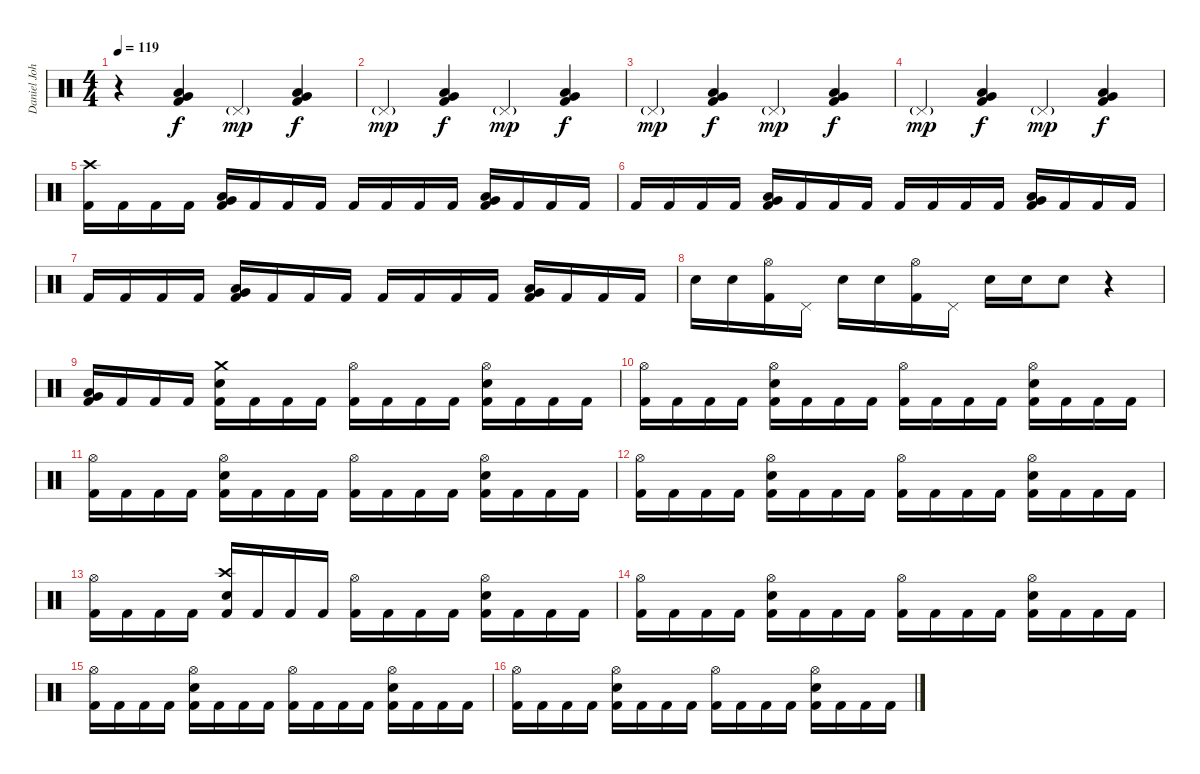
\track ("Daniel John Erlandson (Drums)" "Daniel Joh") {instrument percussion}
\staff {score}
\articulation defaults
\ts (4 4)
\tempo 119
\clef neutral
\ks c
r.4{dy f} ("Kick (hit) 2" "Very Low Tom (hit)" "Low Floor Tom (hit)").4 "Pedal Hi-Hat (hit)"{g}.4{dy mp} ("Very Low Tom (hit)" "Low Floor Tom (hit)" "Kick (hit) 2").4{dy f} |
"Pedal Hi-Hat (hit)"{g}.4{dy mp} ("Kick (hit) 2" "Very Low Tom (hit)" "Low Floor Tom (hit)").4{dy f} "Pedal Hi-Hat (hit)"{g}.4{dy mp} ("Very Low Tom (hit)" "Low Floor Tom (hit)" "Kick (hit) 2").4{dy f} |
"Pedal Hi-Hat (hit)"{g}.4{dy mp} ("Kick (hit) 2" "Very Low Tom (hit)" "Low Floor Tom (hit)").4{dy f} "Pedal Hi-Hat (hit)"{g}.4{dy mp} ("Very Low Tom (hit)" "Low Floor Tom (hit)" "Kick (hit) 2").4{dy f} |
"Pedal Hi-Hat (hit)"{g}.4{dy mp} ("Kick (hit) 2" "Very Low Tom (hit)" "Low Floor Tom (hit)").4{dy f} "Pedal Hi-Hat (hit)"{g}.4{dy mp} ("Very Low Tom (hit)" "Low Floor Tom (hit)" "Kick (hit) 2").4{dy f} |
("Crash high (hit)" "Kick (hit) 2").16 "Kick (hit) 2".16 "Kick (hit) 2".16 "Kick (hit) 2".16 ("Very Low Tom (hit)" "Low Floor Tom (hit)" "Kick (hit) 2").16 "Kick (hit) 2".16 "Kick (hit) 2".16 "Kick (hit) 2".16 "Kick (hit) 2".16 "Kick (hit) 2".16 "Kick (hit) 2".16 "Kick (hit) 2".16 ("Very Low Tom (hit)" "Low Floor Tom (hit)" "Kick (hit) 2").16 "Kick (hit) 2".16 "Kick (hit) 2".16 "Kick (hit) 2".16 |
"Kick (hit) 2".16 "Kick (hit) 2".16 "Kick (hit) 2".16 "Kick (hit) 2".16 ("Very Low Tom (hit)" "Low Floor Tom (hit)" "Kick (hit) 2").16 "Kick (hit) 2".16 "Kick (hit) 2".16 "Kick (hit) 2".16 "Kick (hit) 2".16 "Kick (hit) 2".16 "Kick (hit) 2".16 "Kick (hit) 2".16 ("Very Low Tom (hit)" "Low Floor Tom (hit)" "Kick (hit) 2").16 "Kick (hit) 2".16 "Kick (hit) 2".16 "Kick (hit) 2".16 |
"Kick (hit) 2".16 "Kick (hit) 2".16 "Kick (hit) 2".16 "Kick (hit) 2".16 ("Very Low Tom (hit)" "Low Floor Tom (hit)" "Kick (hit) 2").16 "Kick (hit) 2".16 "Kick (hit) 2".16 "Kick (hit) 2".16 "Kick (hit) 2".16 "Kick (hit) 2".16 "Kick (hit) 2".16 "Kick (hit) 2".16 ("Very Low Tom (hit)" "Low Floor Tom (hit)" "Kick (hit) 2").16 "Kick (hit) 2".16 "Kick (hit) 2".16 "Kick (hit) 2".16 |
"Snare (hit) 2".16 "Snare (hit) 2".16 ("Hi-Hat (open)" "Kick (hit) 2").16 "Pedal Hi-Hat (hit)".16 "Snare (hit) 2".16 "Snare (hit) 2".16 ("Kick (hit) 2" "Hi-Hat (open)").16 "Pedal Hi-Hat (hit)".16 "Snare (hit) 2".16 "Snare (hit) 2".16 "Snare (hit) 2".8 r.4 |
("Very Low Tom (hit)" "Low Floor Tom (hit)" "Kick (hit) 2").16 "Kick (hit) 2".16 "Kick (hit) 2".16 "Kick (hit) 2".16 ("Crash medium (hit)" "Snare (hit) 2" "Kick (hit) 2").16 "Kick (hit) 2".16 "Kick (hit) 2".16 "Kick (hit) 2".16 ("Hi-Hat (open)" "Kick (hit) 2").16 "Kick (hit) 2".16 "Kick (hit) 2".16 "Kick (hit) 2".16 ("Hi-Hat (open)" "Snare (hit) 2" "Kick (hit) 2").16 "Kick (hit) 2".16 "Kick (hit) 2".16 "Kick (hit) 2".16 |
("Hi-Hat (open)" "Kick (hit) 2").16 "Kick (hit) 2".16 "Kick (hit) 2".16 "Kick (hit) 2".16 ("Hi-Hat (open)" "Snare (hit) 2" "Kick (hit) 2").16 "Kick (hit) 2".16 "Kick (hit) 2".16 "Kick (hit) 2".16 ("Hi-Hat (open)" "Kick (hit) 2").16 "Kick (hit) 2".16 "Kick (hit) 2".16 "Kick (hit) 2".16 ("Hi-Hat (open)" "Snare (hit) 2" "Kick (hit) 2").16 "Kick (hit) 2".16 "Kick (hit) 2".16 "Kick (hit) 2".16 |
("Hi-Hat (open)" "Kick (hit) 2").16 "Kick (hit) 2".16 "Kick (hit) 2".16 "Kick (hit) 2".16 ("Hi-Hat (open)" "Snare (hit) 2" "Kick (hit) 2").16 "Kick (hit) 2".16 "Kick (hit) 2".16 "Kick (hit) 2".16 ("Hi-Hat (open)" "Kick (hit) 2").16 "Kick (hit) 2".16 "Kick (hit) 2".16 "Kick (hit) 2".16 ("Hi-Hat (open)" "Snare (hit) 2" "Kick (hit) 2").16 "Kick (hit) 2".16 "Kick (hit) 2".16 "Kick (hit) 2".16 |
("Hi-Hat (open)" "Kick (hit) 2").16 "Kick (hit) 2".16 "Kick (hit) 2".16 "Kick (hit) 2".16 ("Hi-Hat (open)" "Snare (hit) 2" "Kick (hit) 2").16 "Kick (hit) 2".16 "Kick (hit) 2".16 "Kick (hit) 2".16 ("Hi-Hat (open)" "Kick (hit) 2").16 "Kick (hit) 2".16 "Kick (hit) 2".16 "Kick (hit) 2".16 ("Hi-Hat (open)" "Snare (hit) 2" "Kick (hit) 2").16 "Kick (hit) 2".16 "Kick (hit) 2".16 "Kick (hit) 2".16 |
("Hi-Hat (open)" "Kick (hit) 2").16 "Kick (hit) 2".16 "Kick (hit) 2".16 "Kick (hit) 2".16 ("Crash high (hit)" "Snare (hit) 2" "Kick (hit) 2").16 "Kick (hit) 2".16 "Kick (hit) 2".16 "Kick (hit) 2".16 ("Hi-Hat (open)" "Kick (hit) 2").16 "Kick (hit) 2".16 "Kick (hit) 2".16 "Kick (hit) 2".16 ("Hi-Hat (open)" "Snare (hit) 2" "Kick (hit) 2").16 "Kick (hit) 2".16 "Kick (hit) 2".16 "Kick (hit) 2".16 |
("Hi-Hat (open)" "Kick (hit) 2").16 "Kick (hit) 2".16 "Kick (hit) 2".16 "Kick (hit) 2".16 ("Hi-Hat (open)" "Snare (hit) 2" "Kick (hit) 2").16 "Kick (hit) 2".16 "Kick (hit) 2".16 "Kick (hit) 2".16 ("Hi-Hat (open)" "Kick (hit) 2").16 "Kick (hit) 2".16 "Kick (hit) 2".16 "Kick (hit) 2".16 ("Hi-Hat (open)" "Snare (hit) 2" "Kick (hit) 2").16 "Kick (hit) 2".16 "Kick (hit) 2".16 "Kick (hit) 2".16 |
("Hi-Hat (open)" "Kick (hit) 2").16 "Kick (hit) 2".16 "Kick (hit) 2".16 "Kick (hit) 2".16 ("Hi-Hat (open)" "Snare (hit) 2" "Kick (hit) 2").16 "Kick (hit) 2".16 "Kick (hit) 2".16 "Kick (hit) 2".16 ("Hi-Hat (open)" "Kick (hit) 2").16 "Kick (hit) 2".16 "Kick (hit) 2".16 "Kick (hit) 2".16 ("Hi-Hat (open)" "Snare (hit) 2" "Kick (hit) 2").16 "Kick (hit) 2".16 "Kick (hit) 2".16 "Kick (hit) 2".16 |
("Hi-Hat (open)" "Kick (hit) 2").16 "Kick (hit) 2".16 "Kick (hit) 2".16 "Kick (hit) 2".16 ("Hi-Hat (open)" "Snare (hit) 2" "Kick (hit) 2").16 "Kick (hit) 2".16 "Kick (hit) 2".16 "Kick (hit) 2".16 ("Hi-Hat (open)" "Kick (hit) 2").16 "Kick (hit) 2".16 "Kick (hit) 2".16 "Kick (hit) 2".16 ("Hi-Hat (open)" "Snare (hit) 2" "Kick (hit) 2").16 "Kick (hit) 2".16 "Kick (hit) 2".16 "Kick (hit) 2".16
